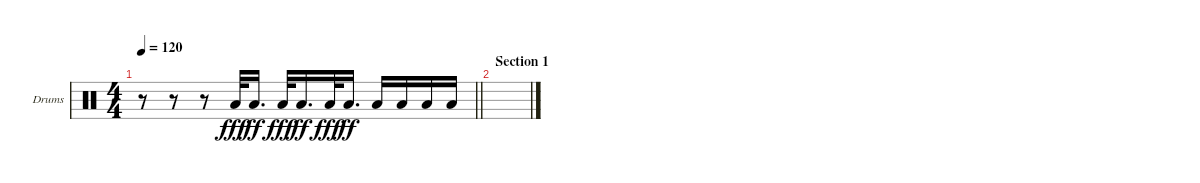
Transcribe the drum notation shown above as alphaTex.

\defaultSystemsLayout 4
\bracketExtendMode groupsimilarinstruments
\firstSystemTrackNameOrientation horizontal
\otherSystemsTrackNameOrientation horizontal
\track ("Drums Aux" "Drums") {instrument percussion}
\staff {score}
\articulation defaults
\ts (4 4)
\tempo 120
\clef neutral
\scale
0.333333
\barLineRight lightlight
\ks c
r.8{dy fff} r.8 r.8 "Low Tom (hit)".32 "Low Tom (hit)".16{d dy ff} "Low Tom (hit)".32{dy fff} "Low Tom (hit)".16{d dy ff} "Low Tom (hit)".32{dy fff} "Low Tom (hit)".16{d dy ff} "Low Tom (hit)".16 "Low Tom (hit)".16 "Low Tom (hit)".16 "Low Tom (hit)".16 |
\section ("" "Section 1")
\scale
0.333333 |
\scale
0.333333
